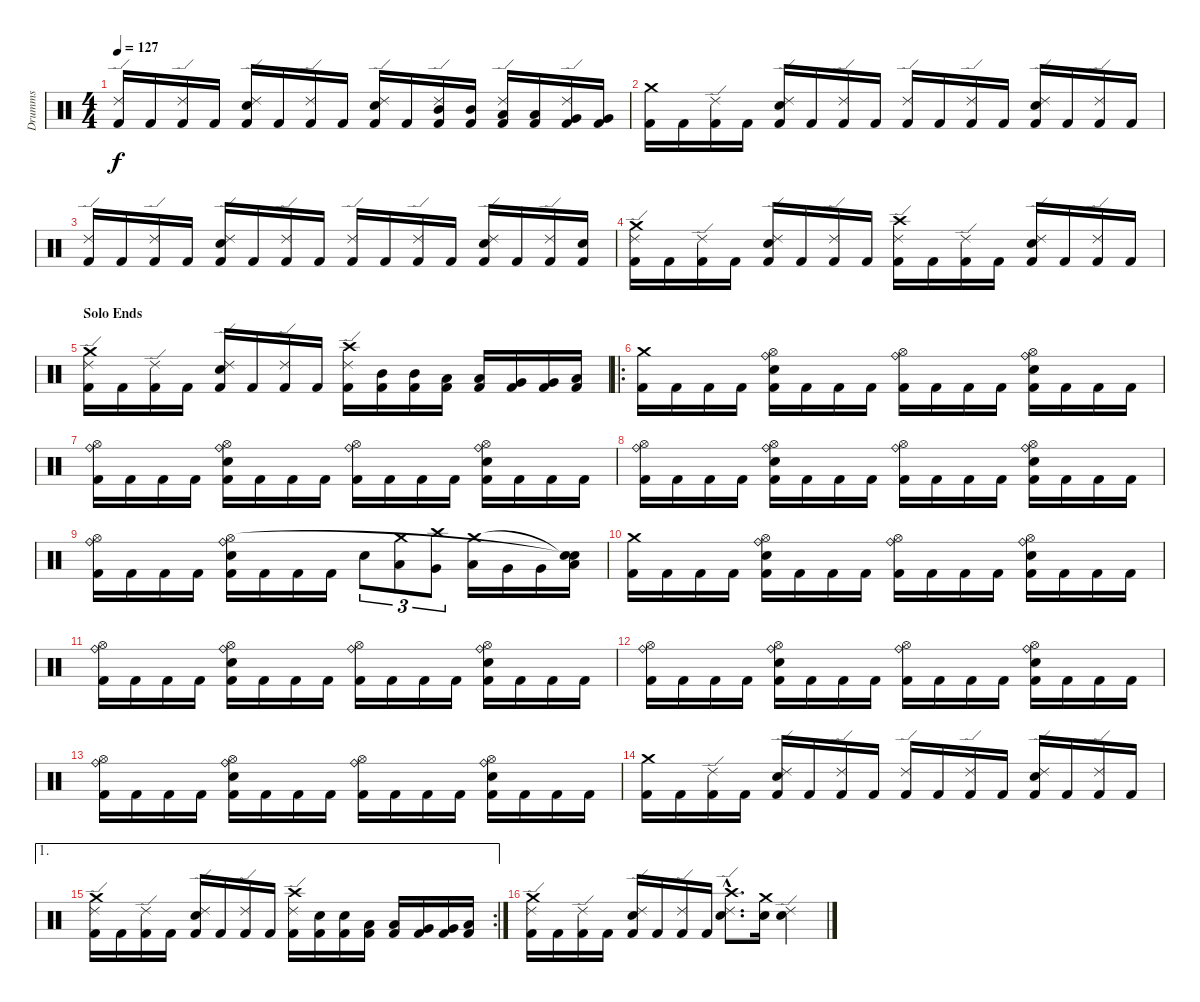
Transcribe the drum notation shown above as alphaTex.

\track ("Drumms" "Drumms") {instrument percussion}
\staff {score}
\articulation defaults
\ts (4 4)
\tempo 127
\clef neutral
\ks c
("Kick (hit) 2" "Ride (edge) 2").16{dy f} "Kick (hit) 2".16 ("Kick (hit) 2" "Ride (edge) 2").16 "Kick (hit) 2".16 ("Kick (hit) 2" "Snare (hit) 2" "Ride (edge) 2").16 "Kick (hit) 2".16 ("Kick (hit) 2" "Ride (edge) 2").16 "Kick (hit) 2".16 ("Kick (hit) 2" "Snare (hit) 2" "Ride (edge) 2").16 "Kick (hit) 2".16 ("Kick (hit) 2" "Mid Tom (hit)" "Ride (edge) 2").16 ("Kick (hit) 2" "Mid Tom (hit)").16 ("Kick (hit) 2" "Low Tom (hit)" "Ride (edge) 2").16 ("Kick (hit) 2" "Low Tom (hit)").16 ("Kick (hit) 2" "Very Low Tom (hit)" "Ride (edge) 2").16 ("Kick (hit) 2" "Very Low Tom (hit)").16 |
("Kick (hit) 2" "Crash medium (hit)").16 "Kick (hit) 2".16 ("Kick (hit) 2" "Ride (edge) 2").16 "Kick (hit) 2".16 ("Kick (hit) 2" "Snare (hit) 2" "Ride (edge) 2").16 "Kick (hit) 2".16 ("Kick (hit) 2" "Ride (edge) 2").16 "Kick (hit) 2".16 ("Kick (hit) 2" "Ride (edge) 2").16 "Kick (hit) 2".16 ("Kick (hit) 2" "Ride (edge) 2").16 "Kick (hit) 2".16 ("Kick (hit) 2" "Snare (hit) 2" "Ride (edge) 2").16 "Kick (hit) 2".16 ("Kick (hit) 2" "Ride (edge) 2").16 "Kick (hit) 2".16 |
("Kick (hit) 2" "Ride (edge) 2").16 "Kick (hit) 2".16 ("Kick (hit) 2" "Ride (edge) 2").16 "Kick (hit) 2".16 ("Kick (hit) 2" "Snare (hit) 2" "Ride (edge) 2").16 "Kick (hit) 2".16 ("Kick (hit) 2" "Ride (edge) 2").16 "Kick (hit) 2".16 ("Kick (hit) 2" "Ride (edge) 2").16 "Kick (hit) 2".16 ("Kick (hit) 2" "Ride (edge) 2").16 "Kick (hit) 2".16 ("Kick (hit) 2" "Snare (hit) 2" "Ride (edge) 2").16 "Kick (hit) 2".16 ("Kick (hit) 2" "Ride (edge) 2").16 ("Kick (hit) 2" "Snare (hit) 2").16 |
("Kick (hit) 2" "Crash medium (hit)" "Ride (edge) 2").16 "Kick (hit) 2".16 ("Kick (hit) 2" "Ride (edge) 2").16 "Kick (hit) 2".16 ("Kick (hit) 2" "Snare (hit) 2" "Ride (edge) 2").16 "Kick (hit) 2".16 ("Kick (hit) 2" "Ride (edge) 2").16 "Kick (hit) 2".16 ("Kick (hit) 2" "Crash high (hit)" "Ride (edge) 2").16 "Kick (hit) 2".16 ("Kick (hit) 2" "Ride (edge) 2").16 "Kick (hit) 2".16 ("Kick (hit) 2" "Snare (hit) 2" "Ride (edge) 2").16 "Kick (hit) 2".16 ("Kick (hit) 2" "Ride (edge) 2").16 "Kick (hit) 2".16 |
\section ("" "Solo Ends")
("Kick (hit) 2" "Crash medium (hit)" "Ride (edge) 2").16 "Kick (hit) 2".16 ("Kick (hit) 2" "Ride (edge) 2").16 "Kick (hit) 2".16 ("Kick (hit) 2" "Snare (hit) 2" "Ride (edge) 2").16 "Kick (hit) 2".16 ("Kick (hit) 2" "Ride (edge) 2").16 "Kick (hit) 2".16 ("Kick (hit) 2" "Crash high (hit)" "Ride (edge) 2").16 ("Kick (hit) 2" "Mid Tom (hit)").16 ("Kick (hit) 2" "Mid Tom (hit)").16 ("Kick (hit) 2" "Low Tom (hit)").16 ("Kick (hit) 2" "Low Tom (hit)").16 ("Kick (hit) 2" "Very Low Tom (hit)").16 ("Kick (hit) 2" "Very Low Tom (hit)").16 ("Kick (hit) 2" "Low Floor Tom (hit)").16 |
\ro
("Kick (hit) 2" "Crash medium (hit)").16 "Kick (hit) 2".16 "Kick (hit) 2".16 "Kick (hit) 2".16 ("Kick (hit) 2" "Snare (hit) 2" "Hi-Hat (open)" "Ride (bell)").16 "Kick (hit) 2".16 "Kick (hit) 2".16 "Kick (hit) 2".16 ("Kick (hit) 2" "Hi-Hat (open)" "Ride (bell)").16 "Kick (hit) 2".16 "Kick (hit) 2".16 "Kick (hit) 2".16 ("Kick (hit) 2" "Snare (hit) 2" "Hi-Hat (open)" "Ride (bell)").16 "Kick (hit) 2".16 "Kick (hit) 2".16 "Kick (hit) 2".16 |
("Kick (hit) 2" "Hi-Hat (open)" "Ride (bell)").16 "Kick (hit) 2".16 "Kick (hit) 2".16 "Kick (hit) 2".16 ("Kick (hit) 2" "Snare (hit) 2" "Hi-Hat (open)" "Ride (bell)").16 "Kick (hit) 2".16 "Kick (hit) 2".16 "Kick (hit) 2".16 ("Kick (hit) 2" "Hi-Hat (open)" "Ride (bell)").16 "Kick (hit) 2".16 "Kick (hit) 2".16 "Kick (hit) 2".16 ("Kick (hit) 2" "Snare (hit) 2" "Hi-Hat (open)" "Ride (bell)").16 "Kick (hit) 2".16 "Kick (hit) 2".16 "Kick (hit) 2".16 |
("Kick (hit) 2" "Hi-Hat (open)" "Ride (bell)").16 "Kick (hit) 2".16 "Kick (hit) 2".16 "Kick (hit) 2".16 ("Kick (hit) 2" "Snare (hit) 2" "Hi-Hat (open)" "Ride (bell)").16 "Kick (hit) 2".16 "Kick (hit) 2".16 "Kick (hit) 2".16 ("Kick (hit) 2" "Hi-Hat (open)" "Ride (bell)").16 "Kick (hit) 2".16 "Kick (hit) 2".16 "Kick (hit) 2".16 ("Kick (hit) 2" "Snare (hit) 2" "Hi-Hat (open)" "Ride (bell)").16 "Kick (hit) 2".16 "Kick (hit) 2".16 "Kick (hit) 2".16 |
("Kick (hit) 2" "Hi-Hat (open)" "Ride (bell)").16 "Kick (hit) 2".16 "Kick (hit) 2".16 "Kick (hit) 2".16 ("Kick (hit) 2" "Snare (hit) 2" "Hi-Hat (open)" "Ride (bell)").16 "Kick (hit) 2".16 "Kick (hit) 2".16 "Kick (hit) 2".16 "Snare (hit) 2".8{tu (3 2)} ("Low Tom (hit)" "Crash medium (hit)").8{tu (3 2)} ("Very Low Tom (hit)" "Crash high (hit)").8{tu (3 2)} ("Low Floor Tom (hit)" "Crash medium (hit)").16 "Very Low Tom (hit)".16 "Very Low Tom (hit)".16 ("Low Floor Tom (hit)" "Snare (hit)"{t} "Snare (hit)"{t}).16 |
("Kick (hit) 2" "Crash medium (hit)").16 "Kick (hit) 2".16 "Kick (hit) 2".16 "Kick (hit) 2".16 ("Kick (hit) 2" "Snare (hit) 2" "Hi-Hat (open)" "Ride (bell)").16 "Kick (hit) 2".16 "Kick (hit) 2".16 "Kick (hit) 2".16 ("Kick (hit) 2" "Hi-Hat (open)" "Ride (bell)").16 "Kick (hit) 2".16 "Kick (hit) 2".16 "Kick (hit) 2".16 ("Kick (hit) 2" "Snare (hit) 2" "Hi-Hat (open)" "Ride (bell)").16 "Kick (hit) 2".16 "Kick (hit) 2".16 "Kick (hit) 2".16 |
("Kick (hit) 2" "Hi-Hat (open)" "Ride (bell)").16 "Kick (hit) 2".16 "Kick (hit) 2".16 "Kick (hit) 2".16 ("Kick (hit) 2" "Snare (hit) 2" "Hi-Hat (open)" "Ride (bell)").16 "Kick (hit) 2".16 "Kick (hit) 2".16 "Kick (hit) 2".16 ("Kick (hit) 2" "Hi-Hat (open)" "Ride (bell)").16 "Kick (hit) 2".16 "Kick (hit) 2".16 "Kick (hit) 2".16 ("Kick (hit) 2" "Snare (hit) 2" "Hi-Hat (open)" "Ride (bell)").16 "Kick (hit) 2".16 "Kick (hit) 2".16 "Kick (hit) 2".16 |
("Kick (hit) 2" "Hi-Hat (open)" "Ride (bell)").16 "Kick (hit) 2".16 "Kick (hit) 2".16 "Kick (hit) 2".16 ("Kick (hit) 2" "Snare (hit) 2" "Hi-Hat (open)" "Ride (bell)").16 "Kick (hit) 2".16 "Kick (hit) 2".16 "Kick (hit) 2".16 ("Kick (hit) 2" "Hi-Hat (open)" "Ride (bell)").16 "Kick (hit) 2".16 "Kick (hit) 2".16 "Kick (hit) 2".16 ("Kick (hit) 2" "Snare (hit) 2" "Hi-Hat (open)" "Ride (bell)").16 "Kick (hit) 2".16 "Kick (hit) 2".16 "Kick (hit) 2".16 |
("Kick (hit) 2" "Hi-Hat (open)" "Ride (bell)").16 "Kick (hit) 2".16 "Kick (hit) 2".16 "Kick (hit) 2".16 ("Kick (hit) 2" "Snare (hit) 2" "Hi-Hat (open)" "Ride (bell)").16 "Kick (hit) 2".16 "Kick (hit) 2".16 "Kick (hit) 2".16 ("Kick (hit) 2" "Hi-Hat (open)" "Ride (bell)").16 "Kick (hit) 2".16 "Kick (hit) 2".16 "Kick (hit) 2".16 ("Kick (hit) 2" "Snare (hit) 2" "Hi-Hat (open)" "Ride (bell)").16 "Kick (hit) 2".16 "Kick (hit) 2".16 "Kick (hit) 2".16 |
("Kick (hit) 2" "Crash medium (hit)").16 "Kick (hit) 2".16 ("Kick (hit) 2" "Ride (edge) 2").16 "Kick (hit) 2".16 ("Kick (hit) 2" "Snare (hit) 2" "Ride (edge) 2").16 "Kick (hit) 2".16 ("Kick (hit) 2" "Ride (edge) 2").16 "Kick (hit) 2".16 ("Kick (hit) 2" "Ride (edge) 2").16 "Kick (hit) 2".16 ("Kick (hit) 2" "Ride (edge) 2").16 "Kick (hit) 2".16 ("Kick (hit) 2" "Snare (hit) 2" "Ride (edge) 2").16 "Kick (hit) 2".16 ("Kick (hit) 2" "Ride (edge) 2").16 "Kick (hit) 2".16 |
\ae 1
\rc 2
("Kick (hit) 2" "Crash medium (hit)" "Ride (edge) 2").16 "Kick (hit) 2".16 ("Kick (hit) 2" "Ride (edge) 2").16 "Kick (hit) 2".16 ("Kick (hit) 2" "Snare (hit) 2" "Ride (edge) 2").16 "Kick (hit) 2".16 ("Kick (hit) 2" "Ride (edge) 2").16 "Kick (hit) 2".16 ("Kick (hit) 2" "Crash high (hit)" "Ride (edge) 2").16 ("Kick (hit) 2" "Snare (hit) 2").16 ("Kick (hit) 2" "Snare (hit) 2").16 ("Kick (hit) 2" "Low Tom (hit)").16 ("Kick (hit) 2" "Low Tom (hit)").16 ("Kick (hit) 2" "Very Low Tom (hit)").16 ("Kick (hit) 2" "Very Low Tom (hit)").16 ("Kick (hit) 2" "Low Floor Tom (hit)").16 |
("Kick (hit) 2" "Crash medium (hit)" "Ride (edge) 2").16 "Kick (hit) 2".16 ("Kick (hit) 2" "Ride (edge) 2").16 "Kick (hit) 2".16 ("Kick (hit) 2" "Snare (hit) 2" "Ride (edge) 2").16 "Kick (hit) 2".16 ("Kick (hit) 2" "Ride (edge) 2").16 "Kick (hit) 2".16 ("Snare (hit) 2"{hac} "Crash high (hit)"{hac} "Ride (edge) 2"{hac}).8{d} ("Snare (hit) 2" "Crash medium (hit)").16 ("Snare (hit) 2" "Ride (edge) 2").4
